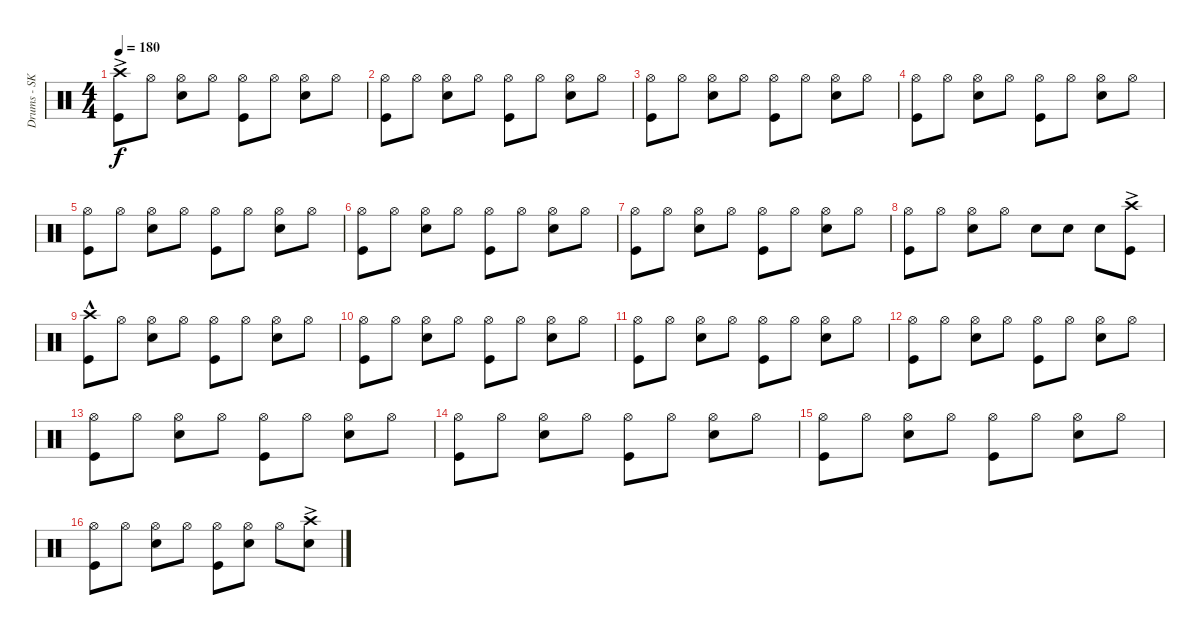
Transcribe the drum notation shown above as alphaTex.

\track ("Drums - SK" "Drums - SK") {instrument percussion}
\staff {score}
\articulation defaults
\ts (4 4)
\tempo 180
\clef neutral
\ks c
("Crash high (hit)"{ac} "Kick (hit)"{ac}).8{dy f} "Hi-Hat (open)".8 ("Hi-Hat (open)" "Snare (hit) 2").8 "Hi-Hat (open)".8 ("Hi-Hat (open)" "Kick (hit)").8 "Hi-Hat (open)".8 ("Hi-Hat (open)" "Snare (hit) 2").8 "Hi-Hat (open)".8 |
("Hi-Hat (open)" "Kick (hit)").8 "Hi-Hat (open)".8 ("Hi-Hat (open)" "Snare (hit) 2").8 "Hi-Hat (open)".8 ("Hi-Hat (open)" "Kick (hit)").8 "Hi-Hat (open)".8 ("Hi-Hat (open)" "Snare (hit) 2").8 "Hi-Hat (open)".8 |
("Kick (hit)" "Hi-Hat (open)").8 "Hi-Hat (open)".8 ("Hi-Hat (open)" "Snare (hit) 2").8 "Hi-Hat (open)".8 ("Hi-Hat (open)" "Kick (hit)").8 "Hi-Hat (open)".8 ("Hi-Hat (open)" "Snare (hit) 2").8 "Hi-Hat (open)".8 |
("Hi-Hat (open)" "Kick (hit)").8 "Hi-Hat (open)".8 ("Hi-Hat (open)" "Snare (hit) 2").8 "Hi-Hat (open)".8 ("Hi-Hat (open)" "Kick (hit)").8 "Hi-Hat (open)".8 ("Hi-Hat (open)" "Snare (hit) 2").8 "Hi-Hat (open)".8 |
("Kick (hit)" "Hi-Hat (open)").8 "Hi-Hat (open)".8 ("Hi-Hat (open)" "Snare (hit) 2").8 "Hi-Hat (open)".8 ("Hi-Hat (open)" "Kick (hit)").8 "Hi-Hat (open)".8 ("Hi-Hat (open)" "Snare (hit) 2").8 "Hi-Hat (open)".8 |
("Hi-Hat (open)" "Kick (hit)").8 "Hi-Hat (open)".8 ("Hi-Hat (open)" "Snare (hit) 2").8 "Hi-Hat (open)".8 ("Hi-Hat (open)" "Kick (hit)").8 "Hi-Hat (open)".8 ("Hi-Hat (open)" "Snare (hit) 2").8 "Hi-Hat (open)".8 |
("Hi-Hat (open)" "Kick (hit)").8 "Hi-Hat (open)".8 ("Hi-Hat (open)" "Snare (hit) 2").8 "Hi-Hat (open)".8 ("Hi-Hat (open)" "Kick (hit)").8 "Hi-Hat (open)".8 ("Hi-Hat (open)" "Snare (hit) 2").8 "Hi-Hat (open)".8 |
("Hi-Hat (open)" "Kick (hit)").8 "Hi-Hat (open)".8 ("Hi-Hat (open)" "Snare (hit) 2").8 "Hi-Hat (open)".8 "Snare (hit) 2".8 "Snare (hit) 2".8 "Snare (hit) 2".8 ("Kick (hit)"{ac} "Crash high (hit)"{ac}).8 |
("Crash high (hit)"{hac} "Kick (hit)"{hac}).8 "Hi-Hat (open)".8 ("Hi-Hat (open)" "Snare (hit) 2").8 "Hi-Hat (open)".8 ("Hi-Hat (open)" "Kick (hit)").8 "Hi-Hat (open)".8 ("Hi-Hat (open)" "Snare (hit) 2").8 "Hi-Hat (open)".8 |
("Hi-Hat (open)" "Kick (hit)").8 "Hi-Hat (open)".8 ("Hi-Hat (open)" "Snare (hit) 2").8 "Hi-Hat (open)".8 ("Hi-Hat (open)" "Kick (hit)").8 "Hi-Hat (open)".8 ("Hi-Hat (open)" "Snare (hit) 2").8 "Hi-Hat (open)".8 |
("Hi-Hat (open)" "Kick (hit)").8 "Hi-Hat (open)".8 ("Hi-Hat (open)" "Snare (hit) 2").8 "Hi-Hat (open)".8 ("Hi-Hat (open)" "Kick (hit)").8 "Hi-Hat (open)".8 ("Hi-Hat (open)" "Snare (hit) 2").8 "Hi-Hat (open)".8 |
("Hi-Hat (open)" "Kick (hit)").8 "Hi-Hat (open)".8 ("Hi-Hat (open)" "Snare (hit) 2").8 "Hi-Hat (open)".8 ("Hi-Hat (open)" "Kick (hit)").8 "Hi-Hat (open)".8 ("Hi-Hat (open)" "Snare (hit) 2").8 "Hi-Hat (open)".8 |
("Kick (hit)" "Hi-Hat (open)").8 "Hi-Hat (open)".8 ("Hi-Hat (open)" "Snare (hit) 2").8 "Hi-Hat (open)".8 ("Hi-Hat (open)" "Kick (hit)").8 "Hi-Hat (open)".8 ("Hi-Hat (open)" "Snare (hit) 2").8 "Hi-Hat (open)".8 |
("Hi-Hat (open)" "Kick (hit)").8 "Hi-Hat (open)".8 ("Hi-Hat (open)" "Snare (hit) 2").8 "Hi-Hat (open)".8 ("Hi-Hat (open)" "Kick (hit)").8 "Hi-Hat (open)".8 ("Hi-Hat (open)" "Snare (hit) 2").8 "Hi-Hat (open)".8 |
("Hi-Hat (open)" "Kick (hit)").8 "Hi-Hat (open)".8 ("Hi-Hat (open)" "Snare (hit) 2").8 "Hi-Hat (open)".8 ("Hi-Hat (open)" "Kick (hit)").8 "Hi-Hat (open)".8 ("Hi-Hat (open)" "Snare (hit) 2").8 "Hi-Hat (open)".8 |
("Hi-Hat (open)" "Kick (hit)").8 "Hi-Hat (open)".8 ("Hi-Hat (open)" "Snare (hit) 2").8 "Hi-Hat (open)".8 ("Hi-Hat (open)" "Kick (hit)").8 ("Hi-Hat (open)" "Snare (hit) 2").8 "Hi-Hat (open)".8 ("Snare (hit) 2"{ac} "Crash high (hit)"{ac}).8
